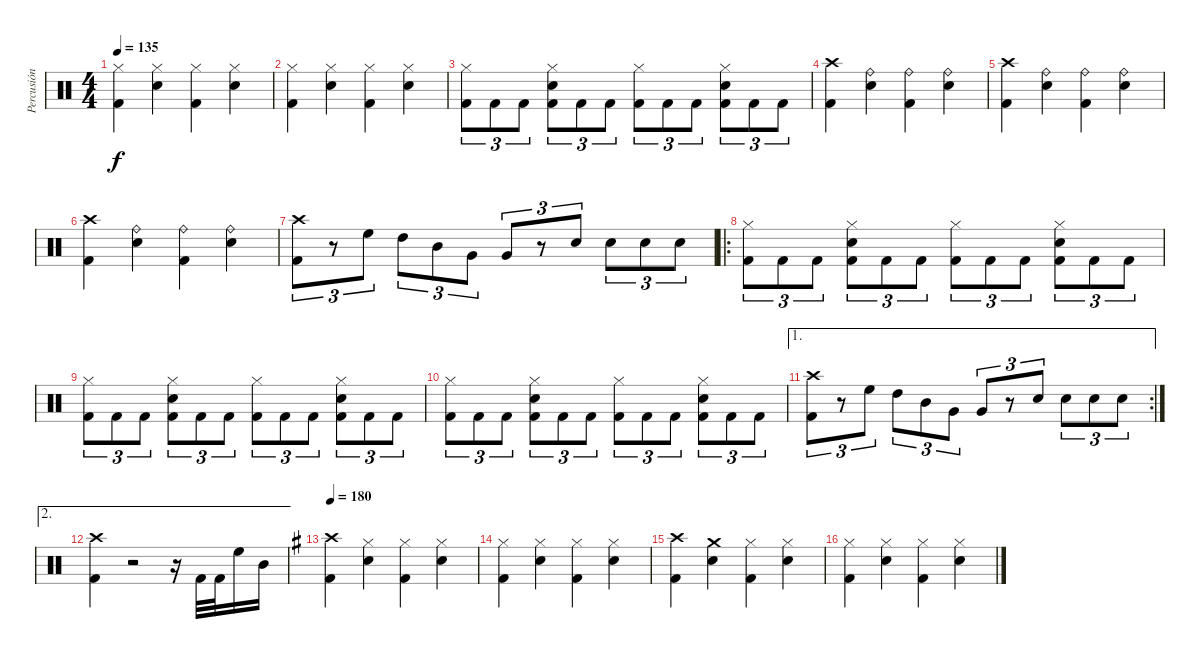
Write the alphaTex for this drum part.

\track ("Percusión" "Percusión") {instrument percussion}
\staff {score}
\articulation defaults
\ts (4 4)
\tempo 135
\clef neutral
\ks c
("Hi-Hat (closed)" "Kick (hit) 2").4{dy f} ("Hi-Hat (closed)" "Snare (hit) 2").4 ("Hi-Hat (closed)" "Kick (hit) 2").4 ("Hi-Hat (closed)" "Snare (hit) 2").4 |
("Hi-Hat (closed)" "Kick (hit) 2").4 ("Hi-Hat (closed)" "Snare (hit) 2").4 ("Hi-Hat (closed)" "Kick (hit) 2").4 ("Hi-Hat (closed)" "Snare (hit) 2").4 |
("Hi-Hat (closed)" "Kick (hit) 2").8{tu (3 2)} "Kick (hit) 2".8{tu (3 2)} "Kick (hit) 2".8{tu (3 2)} ("Hi-Hat (closed)" "Snare (hit) 2" "Kick (hit) 2").8{tu (3 2)} "Kick (hit) 2".8{tu (3 2)} "Kick (hit) 2".8{tu (3 2)} ("Hi-Hat (closed)" "Kick (hit) 2").8{tu (3 2)} "Kick (hit) 2".8{tu (3 2)} "Kick (hit) 2".8{tu (3 2)} ("Hi-Hat (closed)" "Snare (hit) 2" "Kick (hit) 2").8{tu (3 2)} "Kick (hit) 2".8{tu (3 2)} "Kick (hit) 2".8{tu (3 2)} |
("Crash high (hit)" "Kick (hit) 2").4 ("Ride (bell)" "Snare (hit) 2").4 ("Ride (bell)" "Kick (hit) 2").4 ("Ride (bell)" "Snare (hit) 2").4 |
("Crash high (hit)" "Kick (hit) 2").4 ("Ride (bell)" "Snare (hit) 2").4 ("Ride (bell)" "Kick (hit) 2").4 ("Ride (bell)" "Snare (hit) 2").4 |
("Crash high (hit)" "Kick (hit) 2").4 ("Ride (bell)" "Snare (hit) 2").4 ("Ride (bell)" "Kick (hit) 2").4 ("Ride (bell)" "Snare (hit) 2").4 |
("Crash high (hit)" "Kick (hit) 2").8{tu (3 2)} r.8{tu (3 2)} "High Floor Tom (hit)".8{tu (3 2)} "High Tom (hit)".8{tu (3 2)} "Mid Tom (hit)".8{tu (3 2)} "Very Low Tom (hit)".8{tu (3 2)} "Very Low Tom (hit)".8{tu (3 2)} r.8{tu (3 2)} "Snare (hit) 2".8{tu (3 2)} "Snare (hit) 2".8{tu (3 2)} "Snare (hit) 2".8{tu (3 2)} "Snare (hit) 2".8{tu (3 2)} |
\ro
("Hi-Hat (closed)" "Kick (hit) 2").8{tu (3 2)} "Kick (hit) 2".8{tu (3 2)} "Kick (hit) 2".8{tu (3 2)} ("Hi-Hat (closed)" "Snare (hit) 2" "Kick (hit) 2").8{tu (3 2)} "Kick (hit) 2".8{tu (3 2)} "Kick (hit) 2".8{tu (3 2)} ("Hi-Hat (closed)" "Kick (hit) 2").8{tu (3 2)} "Kick (hit) 2".8{tu (3 2)} "Kick (hit) 2".8{tu (3 2)} ("Hi-Hat (closed)" "Snare (hit) 2" "Kick (hit) 2").8{tu (3 2)} "Kick (hit) 2".8{tu (3 2)} "Kick (hit) 2".8{tu (3 2)} |
("Hi-Hat (closed)" "Kick (hit) 2").8{tu (3 2)} "Kick (hit) 2".8{tu (3 2)} "Kick (hit) 2".8{tu (3 2)} ("Hi-Hat (closed)" "Snare (hit) 2" "Kick (hit) 2").8{tu (3 2)} "Kick (hit) 2".8{tu (3 2)} "Kick (hit) 2".8{tu (3 2)} ("Hi-Hat (closed)" "Kick (hit) 2").8{tu (3 2)} "Kick (hit) 2".8{tu (3 2)} "Kick (hit) 2".8{tu (3 2)} ("Hi-Hat (closed)" "Snare (hit) 2" "Kick (hit) 2").8{tu (3 2)} "Kick (hit) 2".8{tu (3 2)} "Kick (hit) 2".8{tu (3 2)} |
("Hi-Hat (closed)" "Kick (hit) 2").8{tu (3 2)} "Kick (hit) 2".8{tu (3 2)} "Kick (hit) 2".8{tu (3 2)} ("Hi-Hat (closed)" "Snare (hit) 2" "Kick (hit) 2").8{tu (3 2)} "Kick (hit) 2".8{tu (3 2)} "Kick (hit) 2".8{tu (3 2)} ("Hi-Hat (closed)" "Kick (hit) 2").8{tu (3 2)} "Kick (hit) 2".8{tu (3 2)} "Kick (hit) 2".8{tu (3 2)} ("Hi-Hat (closed)" "Snare (hit) 2" "Kick (hit) 2").8{tu (3 2)} "Kick (hit) 2".8{tu (3 2)} "Kick (hit) 2".8{tu (3 2)} |
\ae 1
\rc 2
("Crash high (hit)" "Kick (hit) 2").8{tu (3 2)} r.8{tu (3 2)} "High Floor Tom (hit)".8{tu (3 2)} "High Tom (hit)".8{tu (3 2)} "Mid Tom (hit)".8{tu (3 2)} "Very Low Tom (hit)".8{tu (3 2)} "Very Low Tom (hit)".8{tu (3 2)} r.8{tu (3 2)} "Snare (hit) 2".8{tu (3 2)} "Snare (hit) 2".8{tu (3 2)} "Snare (hit) 2".8{tu (3 2)} "Snare (hit) 2".8{tu (3 2)} |
\ae 2
("Crash high (hit)" "Kick (hit) 2").4 r.2 r.16 "Kick (hit) 2".32 "Kick (hit) 2".32 "High Floor Tom (hit)".16 "Mid Tom (hit)".16 |
\tempo 180
\ks eminor
("Crash high (hit)" "Kick (hit) 2").4 ("Hi-Hat (closed)" "Snare (hit) 2").4 ("Hi-Hat (closed)" "Kick (hit) 2").4 ("Hi-Hat (closed)" "Snare (hit) 2").4 |
("Hi-Hat (closed)" "Kick (hit) 2").4 ("Hi-Hat (closed)" "Snare (hit) 2").4 ("Hi-Hat (closed)" "Kick (hit) 2").4 ("Hi-Hat (closed)" "Snare (hit) 2").4 |
("Crash high (hit)" "Kick (hit) 2").4 ("Crash medium (hit)" "Snare (hit) 2").4 ("Hi-Hat (closed)" "Kick (hit) 2").4 ("Hi-Hat (closed)" "Snare (hit) 2").4 |
("Hi-Hat (closed)" "Kick (hit) 2").4 ("Hi-Hat (closed)" "Snare (hit) 2").4 ("Hi-Hat (closed)" "Kick (hit) 2").4 ("Hi-Hat (closed)" "Snare (hit) 2").4
